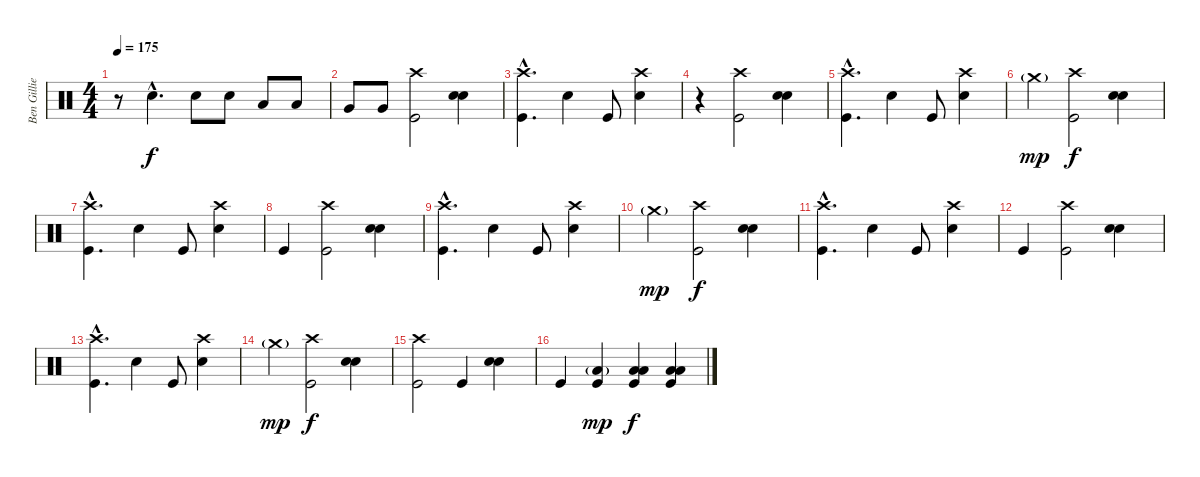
\track ("Ben Gillies" "Ben Gillie") {instrument percussion}
\staff {score}
\articulation defaults
\ts (4 4)
\tempo 175
\clef neutral
\ks c
r.8{dy f} "Snare (hit) 2"{hac}.4{d} "Snare (hit) 2".8 "Snare (hit) 2".8 "Low Tom (hit)".8 "Low Tom (hit)".8 |
"Very Low Tom (hit)".8 "Very Low Tom (hit)".8 ("Kick (hit)" "Crash high (hit)").2 ("Snare (hit) 2" "Snare (hit) 2").4{bu 120} |
("Kick (hit)"{hac} "Crash high (hit)"{hac}).4{d} "Snare (hit) 2".4 "Kick (hit)".8 ("Snare (hit) 2" "Crash high (hit)").4 |
r.4 ("Kick (hit)" "Crash high (hit)").2 ("Snare (hit) 2" "Snare (hit) 2").4{bu 120} |
("Kick (hit)"{hac} "Crash high (hit)"{hac}).4{d} "Snare (hit) 2".4 "Kick (hit)".8 ("Snare (hit) 2" "Crash high (hit)").4 |
"Crash medium (hit)"{g}.4{dy mp} ("Kick (hit)" "Crash high (hit)").2{dy f} ("Snare (hit) 2" "Snare (hit) 2").4{bu 120} |
("Kick (hit)"{hac} "Crash high (hit)"{hac}).4{d} "Snare (hit) 2".4 "Kick (hit)".8 ("Snare (hit) 2" "Crash high (hit)").4 |
"Kick (hit)".4 ("Kick (hit)" "Crash high (hit)").2 ("Snare (hit) 2" "Snare (hit) 2").4{bu 120} |
("Kick (hit)"{hac} "Crash high (hit)"{hac}).4{d} "Snare (hit) 2".4 "Kick (hit)".8 ("Snare (hit) 2" "Crash high (hit)").4 |
"Crash medium (hit)"{g}.4{dy mp} ("Kick (hit)" "Crash high (hit)").2{dy f} ("Snare (hit) 2" "Snare (hit) 2").4{bu 120} |
("Kick (hit)"{hac} "Crash high (hit)"{hac}).4{d} "Snare (hit) 2".4 "Kick (hit)".8 ("Snare (hit) 2" "Crash high (hit)").4 |
"Kick (hit)".4 ("Kick (hit)" "Crash high (hit)").2 ("Snare (hit) 2" "Snare (hit) 2").4{bu 120} |
("Kick (hit)"{hac} "Crash high (hit)"{hac}).4{d} "Snare (hit) 2".4 "Kick (hit)".8 ("Snare (hit) 2" "Crash high (hit)").4 |
"Crash medium (hit)"{g}.4{dy mp} ("Kick (hit)" "Crash high (hit)").2{dy f} ("Snare (hit) 2" "Snare (hit) 2").4{bu 120} |
("Kick (hit)" "Crash high (hit)").2 "Kick (hit)".4 ("Snare (hit) 2" "Snare (hit) 2").4{bu 120} |
"Kick (hit)".4 ("Kick (hit)" "Low Tom (hit)"{g}).4{dy mp} ("Kick (hit)" "Low Tom (hit)" "Low Tom (hit)").4{dy f} ("Kick (hit)" "Low Tom (hit)" "Low Tom (hit)").4
